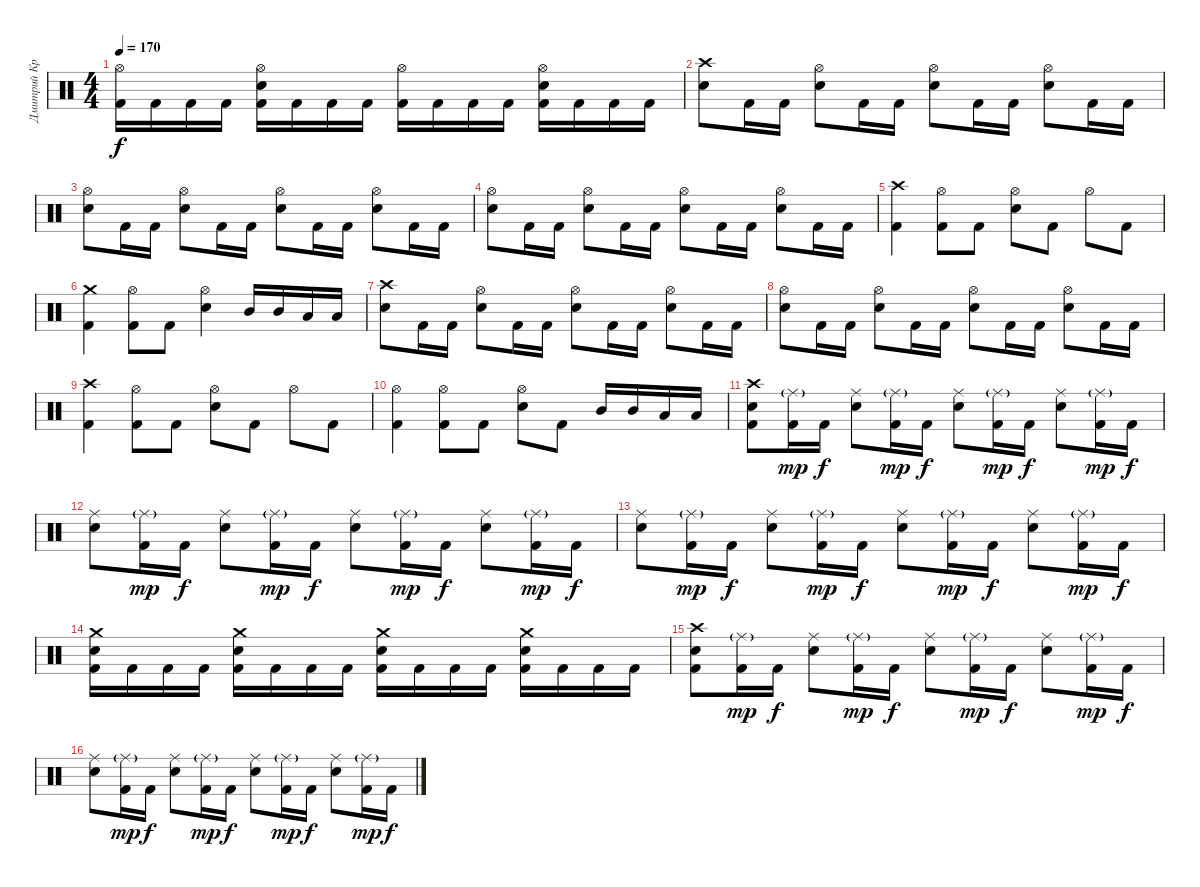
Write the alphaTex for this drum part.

\track ("Дмитрий Кривенков" "Дмитрий Кр") {instrument percussion}
\staff {score}
\articulation defaults
\ts (4 4)
\tempo 170
\clef neutral
\ks c
("Hi-Hat (open)" "Kick (hit) 2").16{dy f} "Kick (hit) 2".16 "Kick (hit) 2".16 "Kick (hit) 2".16 ("Hi-Hat (open)" "Electric Snare (hit)" "Kick (hit) 2").16 "Kick (hit) 2".16 "Kick (hit) 2".16 "Kick (hit) 2".16 ("Hi-Hat (open)" "Kick (hit) 2").16 "Kick (hit) 2".16 "Kick (hit) 2".16 "Kick (hit) 2".16 ("Hi-Hat (open)" "Electric Snare (hit)" "Kick (hit) 2").16 "Kick (hit) 2".16 "Kick (hit) 2".16 "Kick (hit) 2".16 |
("Crash high (hit)" "Electric Snare (hit)").8 "Kick (hit) 2".16 "Kick (hit) 2".16 ("Hi-Hat (open)" "Electric Snare (hit)").8 "Kick (hit) 2".16 "Kick (hit) 2".16 ("Hi-Hat (open)" "Electric Snare (hit)").8 "Kick (hit) 2".16 "Kick (hit) 2".16 ("Hi-Hat (open)" "Electric Snare (hit)").8 "Kick (hit) 2".16 "Kick (hit) 2".16 |
("Hi-Hat (open)" "Electric Snare (hit)").8 "Kick (hit) 2".16 "Kick (hit) 2".16 ("Hi-Hat (open)" "Electric Snare (hit)").8 "Kick (hit) 2".16 "Kick (hit) 2".16 ("Hi-Hat (open)" "Electric Snare (hit)").8 "Kick (hit) 2".16 "Kick (hit) 2".16 ("Hi-Hat (open)" "Electric Snare (hit)").8 "Kick (hit) 2".16 "Kick (hit) 2".16 |
("Hi-Hat (open)" "Electric Snare (hit)").8 "Kick (hit) 2".16 "Kick (hit) 2".16 ("Hi-Hat (open)" "Electric Snare (hit)").8 "Kick (hit) 2".16 "Kick (hit) 2".16 ("Hi-Hat (open)" "Electric Snare (hit)").8 "Kick (hit) 2".16 "Kick (hit) 2".16 ("Hi-Hat (open)" "Electric Snare (hit)").8 "Kick (hit) 2".16 "Kick (hit) 2".16 |
("Crash high (hit)" "Kick (hit) 2").4 ("Hi-Hat (open)" "Kick (hit) 2").8 "Kick (hit) 2".8 ("Hi-Hat (open)" "Electric Snare (hit)").8 "Kick (hit) 2".8 "Hi-Hat (open)".8 "Kick (hit) 2".8 |
("Crash medium (hit)" "Kick (hit) 2").4 ("Hi-Hat (open)" "Kick (hit) 2").8 "Kick (hit) 2".8 ("Hi-Hat (open)" "Electric Snare (hit)").4 "Mid Tom (hit)".16 "Mid Tom (hit)".16 "Low Tom (hit)".16 "Low Tom (hit)".16 |
("Crash high (hit)" "Electric Snare (hit)").8 "Kick (hit) 2".16 "Kick (hit) 2".16 ("Hi-Hat (open)" "Electric Snare (hit)").8 "Kick (hit) 2".16 "Kick (hit) 2".16 ("Hi-Hat (open)" "Electric Snare (hit)").8 "Kick (hit) 2".16 "Kick (hit) 2".16 ("Hi-Hat (open)" "Electric Snare (hit)").8 "Kick (hit) 2".16 "Kick (hit) 2".16 |
("Hi-Hat (open)" "Electric Snare (hit)").8 "Kick (hit) 2".16 "Kick (hit) 2".16 ("Hi-Hat (open)" "Electric Snare (hit)").8 "Kick (hit) 2".16 "Kick (hit) 2".16 ("Hi-Hat (open)" "Electric Snare (hit)").8 "Kick (hit) 2".16 "Kick (hit) 2".16 ("Hi-Hat (open)" "Electric Snare (hit)").8 "Kick (hit) 2".16 "Kick (hit) 2".16 |
("Crash high (hit)" "Kick (hit) 2").4 ("Hi-Hat (open)" "Kick (hit) 2").8 "Kick (hit) 2".8 ("Hi-Hat (open)" "Electric Snare (hit)").8 "Kick (hit) 2".8 "Hi-Hat (open)".8 "Kick (hit) 2".8 |
("Hi-Hat (open)" "Kick (hit) 2").4 ("Hi-Hat (open)" "Kick (hit) 2").8 "Kick (hit) 2".8 ("Hi-Hat (open)" "Electric Snare (hit)").8 "Kick (hit) 2".8 "Mid Tom (hit)".16 "Mid Tom (hit)".16 "Low Tom (hit)".16 "Low Tom (hit)".16 |
("Crash high (hit)" "Electric Snare (hit)" "Kick (hit) 2").8 ("Ride (middle)"{g} "Kick (hit) 2").16{dy mp} "Kick (hit) 2".16{dy f} ("Ride (middle)" "Electric Snare (hit)").8 ("Ride (middle)"{g} "Kick (hit) 2").16{dy mp} "Kick (hit) 2".16{dy f} ("Ride (middle)" "Electric Snare (hit)").8 ("Ride (middle)"{g} "Kick (hit) 2").16{dy mp} "Kick (hit) 2".16{dy f} ("Ride (middle)" "Electric Snare (hit)").8 ("Ride (middle)"{g} "Kick (hit) 2").16{dy mp} "Kick (hit) 2".16{dy f} |
("Ride (middle)" "Electric Snare (hit)").8 ("Ride (middle)"{g} "Kick (hit) 2").16{dy mp} "Kick (hit) 2".16{dy f} ("Ride (middle)" "Electric Snare (hit)").8 ("Ride (middle)"{g} "Kick (hit) 2").16{dy mp} "Kick (hit) 2".16{dy f} ("Ride (middle)" "Electric Snare (hit)").8 ("Ride (middle)"{g} "Kick (hit) 2").16{dy mp} "Kick (hit) 2".16{dy f} ("Ride (middle)" "Electric Snare (hit)").8 ("Ride (middle)"{g} "Kick (hit) 2").16{dy mp} "Kick (hit) 2".16{dy f} |
("Ride (middle)" "Electric Snare (hit)").8 ("Ride (middle)"{g} "Kick (hit) 2").16{dy mp} "Kick (hit) 2".16{dy f} ("Ride (middle)" "Electric Snare (hit)").8 ("Ride (middle)"{g} "Kick (hit) 2").16{dy mp} "Kick (hit) 2".16{dy f} ("Ride (middle)" "Electric Snare (hit)").8 ("Ride (middle)"{g} "Kick (hit) 2").16{dy mp} "Kick (hit) 2".16{dy f} ("Ride (middle)" "Electric Snare (hit)").8 ("Ride (middle)"{g} "Kick (hit) 2").16{dy mp} "Kick (hit) 2".16{dy f} |
("Crash medium (hit)" "Electric Snare (hit)" "Kick (hit) 2").16 "Kick (hit) 2".16 "Kick (hit) 2".16 "Kick (hit) 2".16 ("Crash medium (hit)" "Electric Snare (hit)" "Kick (hit) 2").16 "Kick (hit) 2".16 "Kick (hit) 2".16 "Kick (hit) 2".16 ("Crash medium (hit)" "Electric Snare (hit)" "Kick (hit) 2").16 "Kick (hit) 2".16 "Kick (hit) 2".16 "Kick (hit) 2".16 ("Crash medium (hit)" "Electric Snare (hit)" "Kick (hit) 2").16 "Kick (hit) 2".16 "Kick (hit) 2".16 "Kick (hit) 2".16 |
("Crash high (hit)" "Electric Snare (hit)" "Kick (hit) 2").8 ("Ride (middle)"{g} "Kick (hit) 2").16{dy mp} "Kick (hit) 2".16{dy f} ("Ride (middle)" "Electric Snare (hit)").8 ("Ride (middle)"{g} "Kick (hit) 2").16{dy mp} "Kick (hit) 2".16{dy f} ("Ride (middle)" "Electric Snare (hit)").8 ("Ride (middle)"{g} "Kick (hit) 2").16{dy mp} "Kick (hit) 2".16{dy f} ("Ride (middle)" "Electric Snare (hit)").8 ("Ride (middle)"{g} "Kick (hit) 2").16{dy mp} "Kick (hit) 2".16{dy f} |
("Ride (middle)" "Electric Snare (hit)").8 ("Ride (middle)"{g} "Kick (hit) 2").16{dy mp} "Kick (hit) 2".16{dy f} ("Ride (middle)" "Electric Snare (hit)").8 ("Ride (middle)"{g} "Kick (hit) 2").16{dy mp} "Kick (hit) 2".16{dy f} ("Ride (middle)" "Electric Snare (hit)").8 ("Ride (middle)"{g} "Kick (hit) 2").16{dy mp} "Kick (hit) 2".16{dy f} ("Ride (middle)" "Electric Snare (hit)").8 ("Ride (middle)"{g} "Kick (hit) 2").16{dy mp} "Kick (hit) 2".16{dy f}
